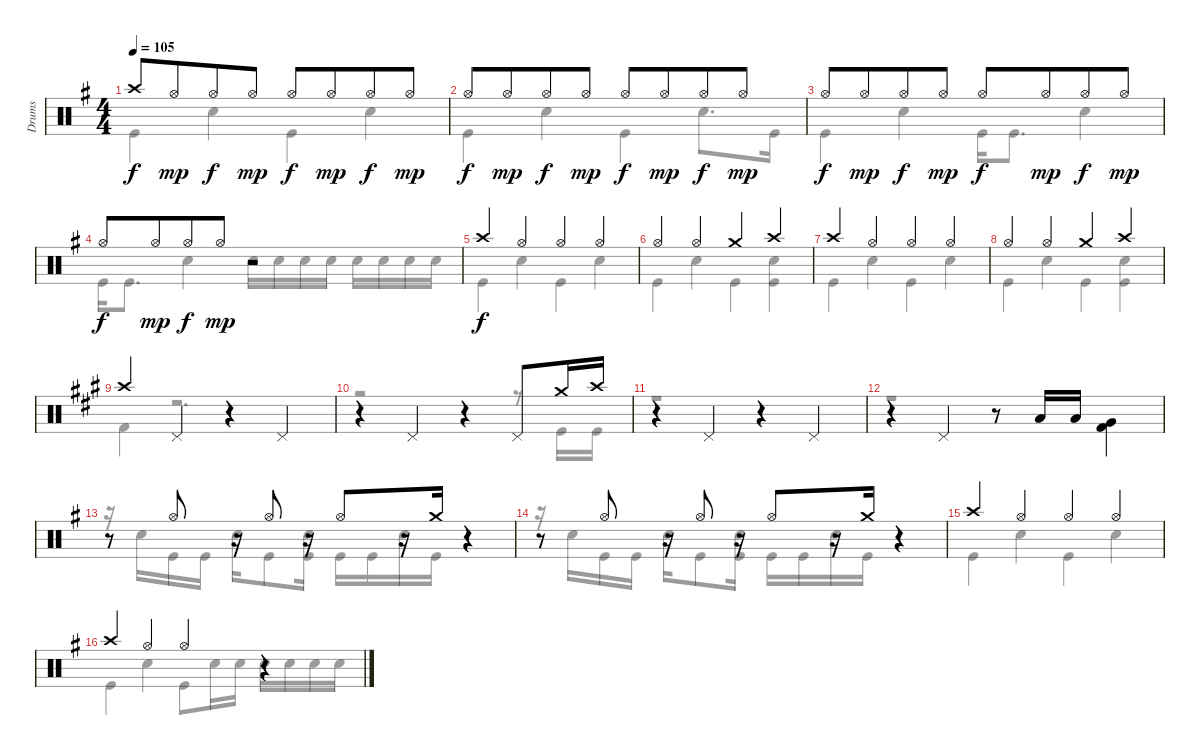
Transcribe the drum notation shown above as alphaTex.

\track ("Drums" "Drums") {instrument percussion}
\staff {score}
\articulation defaults
\voice
\ts (4 4)
\tempo 105
\clef neutral
\ks eminor "Crash high (hit)".8{dy f} "Hi-Hat (open)".8{dy mp beam merge} "Hi-Hat (open)".8{dy f} "Hi-Hat (open)".8{dy mp} "Hi-Hat (open)".8{dy f} "Hi-Hat (open)".8{dy mp beam merge} "Hi-Hat (open)".8{dy f} "Hi-Hat (open)".8{dy mp}
|
"Hi-Hat (open)".8{dy f} "Hi-Hat (open)".8{dy mp beam merge} "Hi-Hat (open)".8{dy f} "Hi-Hat (open)".8{dy mp} "Hi-Hat (open)".8{dy f} "Hi-Hat (open)".8{dy mp beam merge} "Hi-Hat (open)".8{dy f} "Hi-Hat (open)".8{dy mp} |
"Hi-Hat (open)".8{dy f} "Hi-Hat (open)".8{dy mp beam merge} "Hi-Hat (open)".8{dy f} "Hi-Hat (open)".8{dy mp} "Hi-Hat (open)".8{dy f} "Hi-Hat (open)".8{dy mp beam merge} "Hi-Hat (open)".8{dy f} "Hi-Hat (open)".8{dy mp} |
"Hi-Hat (open)".8{dy f} "Hi-Hat (open)".8{dy mp beam merge} "Hi-Hat (open)".8{dy f} "Hi-Hat (open)".8{dy mp} r.2 |
"Crash high (hit)".4{dy f} "Hi-Hat (open)".4 "Hi-Hat (open)".4 "Hi-Hat (open)".4 |
"Hi-Hat (open)".4 "Hi-Hat (open)".4 "Crash medium (hit)".4 "Crash high (hit)".4 |
"Crash high (hit)".4 "Hi-Hat (open)".4 "Hi-Hat (open)".4 "Hi-Hat (open)".4 |
"Hi-Hat (open)".4 "Hi-Hat (open)".4 "Crash medium (hit)".4 "Crash high (hit)".4 |
\ks f#minor "Crash high (hit)".4 "Pedal Hi-Hat (hit)".4
r.4 "Pedal Hi-Hat (hit)".4 |
r.4 "Pedal Hi-Hat (hit)".4 r.4 "Pedal Hi-Hat (hit)".8 "Crash medium (hit)".16 "Crash high (hit)".16 |
r.4 "Pedal Hi-Hat (hit)".4 r.4 "Pedal Hi-Hat (hit)".4 |
r.4 "Pedal Hi-Hat (hit)".4 r.8 "Low Tom (hit)".16 "Low Tom (hit)".16 ("Very Low Tom (hit)" "Kick (hit) 2").4{beam Down} |
\ks eminor
r.8 "Hi-Hat (open)".8 r.16 "Hi-Hat (open)".8 r.16 "Hi-Hat (open)".8 r.16 "Crash medium (hit)".16 r.4 |
r.8 "Hi-Hat (open)".8 r.16 "Hi-Hat (open)".8 r.16 "Hi-Hat (open)".8 r.16 "Crash medium (hit)".16 r.4 |
"Crash high (hit)".4 "Hi-Hat (open)".4 "Hi-Hat (open)".4 "Hi-Hat (open)".4 |
"Crash high (hit)".4 "Hi-Hat (open)".4 "Hi-Hat (open)".4 r.4
\voice
\clef neutral
\ottava regular
\simile none
\ks eminor "Kick (hit)".4{dy f} "Snare (hit) 2".4 "Kick (hit)".4 "Snare (hit) 2".4
|
"Kick (hit)".4 "Snare (hit) 2".4 "Kick (hit)".4 "Snare (hit) 2".8{d} "Kick (hit)".16 |
"Kick (hit)".4 "Snare (hit) 2".4 "Kick (hit)".16 "Kick (hit)".8{d} "Snare (hit) 2".4 |
"Kick (hit)".16 "Kick (hit)".8{d} "Snare (hit) 2".4 "Snare (hit) 2".16 "Snare (hit) 2".16 "Snare (hit) 2".16 "Snare (hit) 2".16 "Snare (hit) 2".16 "Snare (hit) 2".16 "Snare (hit) 2".16 "Snare (hit) 2".16 |
"Kick (hit)".4 "Snare (hit) 2".4 "Kick (hit)".4 "Snare (hit) 2".4 |
"Kick (hit)".4 "Snare (hit) 2".4 "Kick (hit)".4 ("Snare (hit) 2" "Kick (hit)").4 |
"Kick (hit)".4 "Snare (hit) 2".4 "Kick (hit)".4 "Snare (hit) 2".4 |
"Kick (hit)".4 "Snare (hit) 2".4 "Kick (hit)".4 ("Snare (hit) 2" "Kick (hit)").4 |
\ks f#minor "Kick (hit) 2".4
r.2{d} |
r.2 r.4 r.8 "Kick (hit)".16 "Kick (hit)".16 |
r.1 |
r.1 |
\ks eminor
r.16 "Snare (hit) 2".16 "Kick (hit)".16 "Kick (hit)".16 "Snare (hit) 2".16 "Kick (hit)".8 ("Snare (hit) 2" "Kick (hit)").16 "Kick (hit)".16 "Kick (hit)".16 "Snare (hit) 2".16 "Kick (hit)".16 r.4 |
r.16 "Snare (hit) 2".16 "Kick (hit)".16 "Kick (hit)".16 "Snare (hit) 2".16 "Kick (hit)".8 ("Snare (hit) 2" "Kick (hit)").16 "Kick (hit)".16 "Kick (hit)".16 "Snare (hit) 2".16 "Kick (hit)".16 r.4 |
"Kick (hit)".4 "Snare (hit) 2".4 "Kick (hit)".4 "Snare (hit) 2".4 |
"Kick (hit)".4 "Snare (hit) 2".4 "Kick (hit)".8 "Snare (hit) 2".16 "Snare (hit) 2".16 "Snare (hit) 2".16 "Snare (hit) 2".16 "Snare (hit) 2".16 "Snare (hit) 2".16
